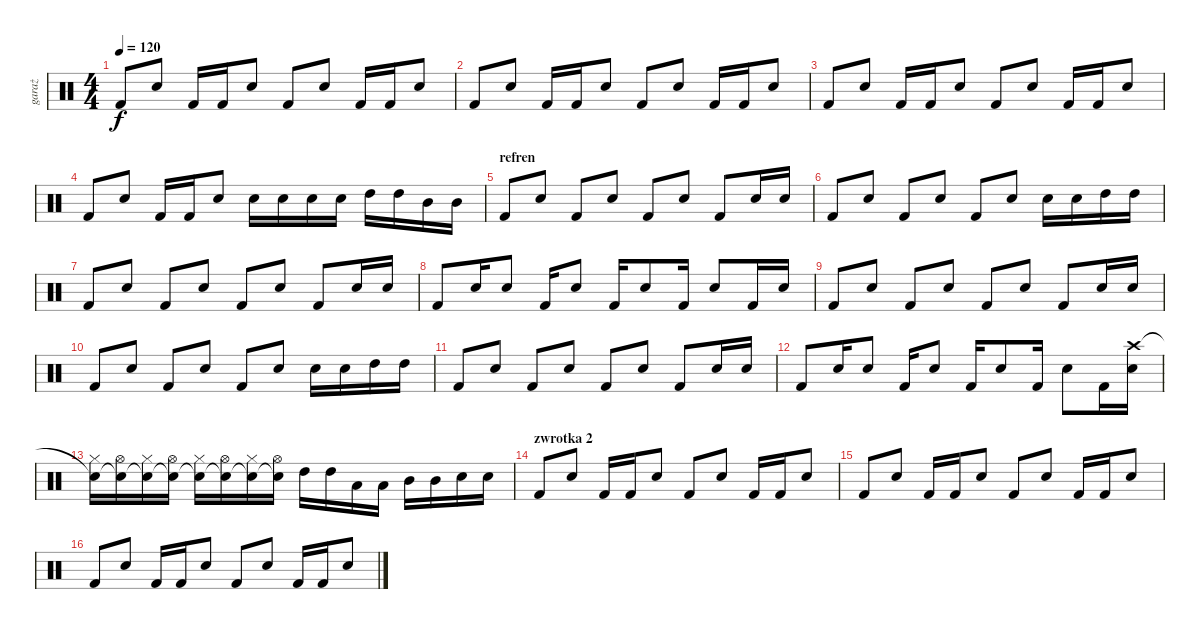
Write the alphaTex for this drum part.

\track ("garaż" "garaż") {instrument percussion}
\staff {score}
\articulation defaults
\ts (4 4)
\tempo 120
\clef neutral
\ks c "Kick (hit) 2".8{dy f} "Snare (hit) 2".8 "Kick (hit) 2".16 "Kick (hit) 2".16 "Snare (hit) 2".8 "Kick (hit) 2".8 "Snare (hit) 2".8 "Kick (hit) 2".16 "Kick (hit) 2".16 "Snare (hit) 2".8
|
"Kick (hit) 2".8 "Snare (hit) 2".8 "Kick (hit) 2".16 "Kick (hit) 2".16 "Snare (hit) 2".8 "Kick (hit) 2".8 "Snare (hit) 2".8 "Kick (hit) 2".16 "Kick (hit) 2".16 "Snare (hit) 2".8 |
"Kick (hit) 2".8 "Snare (hit) 2".8 "Kick (hit) 2".16 "Kick (hit) 2".16 "Snare (hit) 2".8 "Kick (hit) 2".8 "Snare (hit) 2".8 "Kick (hit) 2".16 "Kick (hit) 2".16 "Snare (hit) 2".8 |
"Kick (hit) 2".8 "Snare (hit) 2".8 "Kick (hit) 2".16 "Kick (hit) 2".16 "Snare (hit) 2".8 "Snare (hit) 2".16 "Snare (hit) 2".16 "Snare (hit) 2".16 "Snare (hit) 2".16 "High Tom (hit)".16 "High Tom (hit)".16 "Mid Tom (hit)".16 "Mid Tom (hit)".16 |
\section ("" "refren")
"Kick (hit) 2".8 "Snare (hit) 2".8 "Kick (hit) 2".8 "Snare (hit) 2".8 "Kick (hit) 2".8 "Snare (hit) 2".8 "Kick (hit) 2".8 "Snare (hit) 2".16 "Snare (hit) 2".16 |
"Kick (hit) 2".8 "Snare (hit) 2".8 "Kick (hit) 2".8 "Snare (hit) 2".8 "Kick (hit) 2".8 "Snare (hit) 2".8 "Snare (hit) 2".16 "Snare (hit) 2".16 "High Tom (hit)".16 "High Tom (hit)".16 |
"Kick (hit) 2".8 "Snare (hit) 2".8 "Kick (hit) 2".8 "Snare (hit) 2".8 "Kick (hit) 2".8 "Snare (hit) 2".8 "Kick (hit) 2".8 "Snare (hit) 2".16 "Snare (hit) 2".16 |
"Kick (hit) 2".8 "Snare (hit) 2".16 "Snare (hit) 2".8 "Kick (hit) 2".16 "Snare (hit) 2".8 "Kick (hit) 2".16 "Snare (hit) 2".8 "Kick (hit) 2".16 "Snare (hit) 2".8 "Kick (hit) 2".16 "Snare (hit) 2".16 |
"Kick (hit) 2".8 "Snare (hit) 2".8 "Kick (hit) 2".8 "Snare (hit) 2".8 "Kick (hit) 2".8 "Snare (hit) 2".8 "Kick (hit) 2".8 "Snare (hit) 2".16 "Snare (hit) 2".16 |
"Kick (hit) 2".8 "Snare (hit) 2".8 "Kick (hit) 2".8 "Snare (hit) 2".8 "Kick (hit) 2".8 "Snare (hit) 2".8 "Snare (hit) 2".16 "Snare (hit) 2".16 "High Tom (hit)".16 "High Tom (hit)".16 |
"Kick (hit) 2".8 "Snare (hit) 2".8 "Kick (hit) 2".8 "Snare (hit) 2".8 "Kick (hit) 2".8 "Snare (hit) 2".8 "Kick (hit) 2".8 "Snare (hit) 2".16 "Snare (hit) 2".16 |
"Kick (hit) 2".8 "Snare (hit) 2".16 "Snare (hit) 2".8 "Kick (hit) 2".16 "Snare (hit) 2".8 "Kick (hit) 2".16 "Snare (hit) 2".8 "Kick (hit) 2".16 "Snare (hit) 2".8 "Kick (hit) 2".16 ("Crash high (hit)" "Snare (hit) 2").16 |
("Snare (hit)"{t} "Hi-Hat (closed)").16 ("Snare (hit)"{t} "Hi-Hat (open)").16 ("Snare (hit)"{t} "Hi-Hat (closed)").16 ("Snare (hit)"{t} "Hi-Hat (open)").16 ("Snare (hit)"{t} "Hi-Hat (closed)").16 ("Snare (hit)"{t} "Hi-Hat (open)").16 ("Snare (hit)"{t} "Hi-Hat (closed)").16 ("Snare (hit)"{t} "Hi-Hat (open)").16 "High Tom (hit)".16 "High Tom (hit)".16 "Low Tom (hit)".16 "Low Tom (hit)".16 "Mid Tom (hit)".16 "Mid Tom (hit)".16 "Snare (hit) 2".16 "Snare (hit) 2".16 |
\section ("" "zwrotka 2")
"Kick (hit) 2".8 "Snare (hit) 2".8 "Kick (hit) 2".16 "Kick (hit) 2".16 "Snare (hit) 2".8 "Kick (hit) 2".8 "Snare (hit) 2".8 "Kick (hit) 2".16 "Kick (hit) 2".16 "Snare (hit) 2".8 |
"Kick (hit) 2".8 "Snare (hit) 2".8 "Kick (hit) 2".16 "Kick (hit) 2".16 "Snare (hit) 2".8 "Kick (hit) 2".8 "Snare (hit) 2".8 "Kick (hit) 2".16 "Kick (hit) 2".16 "Snare (hit) 2".8 |
"Kick (hit) 2".8 "Snare (hit) 2".8 "Kick (hit) 2".16 "Kick (hit) 2".16 "Snare (hit) 2".8 "Kick (hit) 2".8 "Snare (hit) 2".8 "Kick (hit) 2".16 "Kick (hit) 2".16 "Snare (hit) 2".8
